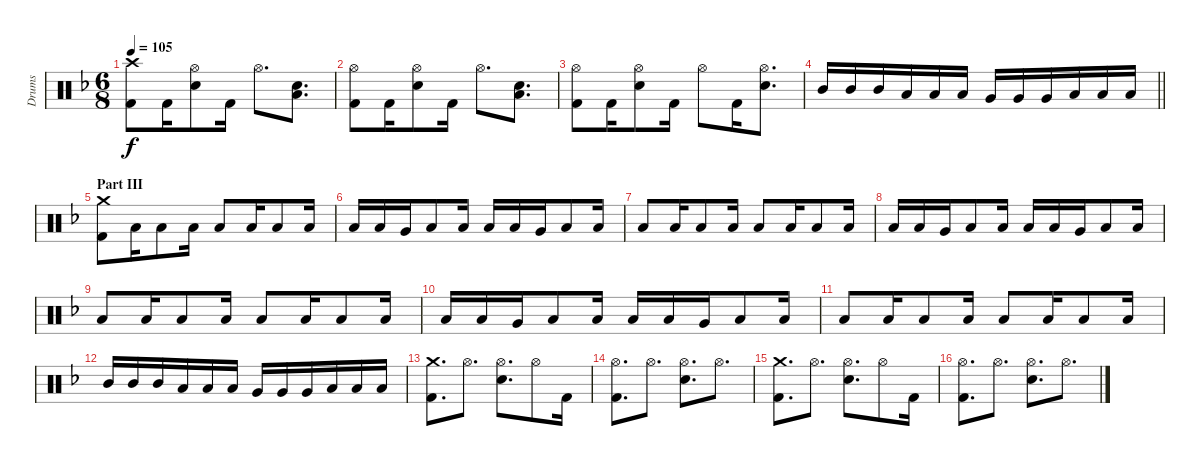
\track ("Drums" "Drums") {instrument percussion}
\staff {score}
\articulation defaults
\ts (6 8)
\tempo 105
\clef neutral
\ks dminor
("Kick (hit) 2" "Crash high (hit)").8{dy f} "Kick (hit) 2".16 ("Electric Snare (hit)" "Hi-Hat (open)").8 "Kick (hit) 2".16 "Hi-Hat (open)".8{d} ("Electric Snare (hit)" "Low Floor Tom (hit)").8{d} |
("Kick (hit) 2" "Hi-Hat (open)").8 "Kick (hit) 2".16 ("Electric Snare (hit)" "Hi-Hat (open)").8 "Kick (hit) 2".16 "Hi-Hat (open)".8{d} ("Electric Snare (hit)" "Low Floor Tom (hit)").8{d} |
("Kick (hit) 2" "Hi-Hat (open)").8 "Kick (hit) 2".16 ("Electric Snare (hit)" "Hi-Hat (open)").8 "Kick (hit) 2".16 "Hi-Hat (open)".8 "Kick (hit) 2".16 ("Electric Snare (hit)" "Hi-Hat (open)").8{d} |
\barLineRight lightlight "Mid Tom (hit)".16 "Mid Tom (hit)".16 "Mid Tom (hit)".16 "Low Tom (hit)".16 "Low Tom (hit)".16 "Low Tom (hit)".16 "Very Low Tom (hit)".16 "Very Low Tom (hit)".16 "Very Low Tom (hit)".16 "Low Floor Tom (hit)".16 "Low Floor Tom (hit)".16 "Low Floor Tom (hit)".16
|
\section ("" "Part III")
("Crash medium (hit)" "Kick (hit) 2").8 "Low Floor Tom (hit)".16 "Low Floor Tom (hit)".8 "Low Floor Tom (hit)".16 "Low Floor Tom (hit)".8 "Low Floor Tom (hit)".16 "Low Floor Tom (hit)".8 "Low Floor Tom (hit)".16 |
"Low Floor Tom (hit)".16 "Low Floor Tom (hit)".16 "Very Low Tom (hit)".16 "Low Floor Tom (hit)".8 "Low Floor Tom (hit)".16 "Low Floor Tom (hit)".16 "Low Floor Tom (hit)".16 "Very Low Tom (hit)".16 "Low Floor Tom (hit)".8 "Low Floor Tom (hit)".16 |
"Low Floor Tom (hit)".8 "Low Floor Tom (hit)".16 "Low Floor Tom (hit)".8 "Low Floor Tom (hit)".16 "Low Floor Tom (hit)".8 "Low Floor Tom (hit)".16 "Low Floor Tom (hit)".8 "Low Floor Tom (hit)".16 |
"Low Floor Tom (hit)".16 "Low Floor Tom (hit)".16 "Very Low Tom (hit)".16 "Low Floor Tom (hit)".8 "Low Floor Tom (hit)".16 "Low Floor Tom (hit)".16 "Low Floor Tom (hit)".16 "Very Low Tom (hit)".16 "Low Floor Tom (hit)".8 "Low Floor Tom (hit)".16 |
"Low Floor Tom (hit)".8 "Low Floor Tom (hit)".16 "Low Floor Tom (hit)".8 "Low Floor Tom (hit)".16 "Low Floor Tom (hit)".8 "Low Floor Tom (hit)".16 "Low Floor Tom (hit)".8 "Low Floor Tom (hit)".16 |
"Low Floor Tom (hit)".16 "Low Floor Tom (hit)".16 "Very Low Tom (hit)".16 "Low Floor Tom (hit)".8 "Low Floor Tom (hit)".16 "Low Floor Tom (hit)".16 "Low Floor Tom (hit)".16 "Very Low Tom (hit)".16 "Low Floor Tom (hit)".8 "Low Floor Tom (hit)".16 |
"Low Floor Tom (hit)".8 "Low Floor Tom (hit)".16 "Low Floor Tom (hit)".8 "Low Floor Tom (hit)".16 "Low Floor Tom (hit)".8 "Low Floor Tom (hit)".16 "Low Floor Tom (hit)".8 "Low Floor Tom (hit)".16 |
"Mid Tom (hit)".16 "Mid Tom (hit)".16 "Mid Tom (hit)".16 "Low Tom (hit)".16 "Low Tom (hit)".16 "Low Tom (hit)".16 "Very Low Tom (hit)".16 "Very Low Tom (hit)".16 "Very Low Tom (hit)".16 "Low Floor Tom (hit)".16 "Low Floor Tom (hit)".16 "Low Floor Tom (hit)".16 |
("Crash medium (hit)" "Kick (hit) 2").8{d} "Hi-Hat (open)".8{d} ("Hi-Hat (open)" "Electric Snare (hit)").8{d} "Hi-Hat (open)".8 "Kick (hit) 2".16 |
("Hi-Hat (open)" "Kick (hit) 2").8{d} "Hi-Hat (open)".8{d} ("Hi-Hat (open)" "Electric Snare (hit)").8{d} "Hi-Hat (open)".8{d} |
("Crash medium (hit)" "Kick (hit) 2").8{d} "Hi-Hat (open)".8{d} ("Hi-Hat (open)" "Electric Snare (hit)").8{d} "Hi-Hat (open)".8 "Kick (hit) 2".16 |
("Hi-Hat (open)" "Kick (hit) 2").8{d} "Hi-Hat (open)".8{d} ("Hi-Hat (open)" "Electric Snare (hit)").8{d} "Hi-Hat (open)".8{d}
